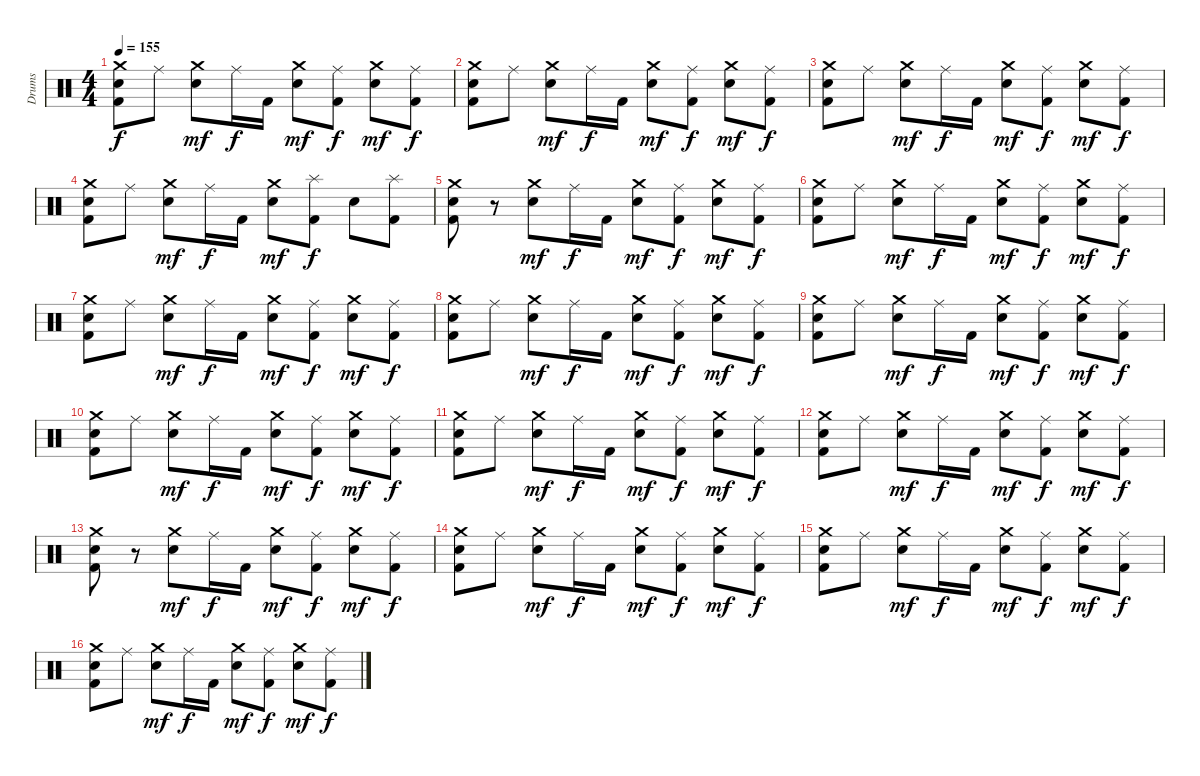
\track ("Drums" "Drums") {instrument percussion}
\staff {score}
\articulation defaults
\ts (4 4)
\tempo 155
\clef neutral
\ks c
("Crash medium (hit)" "Snare (hit) 2" "Kick (hit) 2").8{dy f} "Ride (middle)".8 ("Crash medium (hit)" "Snare (hit) 2").8{dy mf} "Ride (middle)".16{dy f} "Kick (hit) 2".16 ("Crash medium (hit)" "Snare (hit) 2").8{dy mf} ("Ride (middle)" "Kick (hit) 2").8{dy f} ("Crash medium (hit)" "Snare (hit) 2").8{dy mf} ("Ride (middle)" "Kick (hit) 2").8{dy f} |
("Crash medium (hit)" "Snare (hit) 2" "Kick (hit) 2").8 "Ride (middle)".8 ("Crash medium (hit)" "Snare (hit) 2").8{dy mf} "Ride (middle)".16{dy f} "Kick (hit) 2".16 ("Crash medium (hit)" "Snare (hit) 2").8{dy mf} ("Ride (middle)" "Kick (hit) 2").8{dy f} ("Crash medium (hit)" "Snare (hit) 2").8{dy mf} ("Ride (middle)" "Kick (hit) 2").8{dy f} |
("Crash medium (hit)" "Snare (hit) 2" "Kick (hit) 2").8 "Ride (middle)".8 ("Crash medium (hit)" "Snare (hit) 2").8{dy mf} "Ride (middle)".16{dy f} "Kick (hit) 2".16 ("Crash medium (hit)" "Snare (hit) 2").8{dy mf} ("Ride (middle)" "Kick (hit) 2").8{dy f} ("Crash medium (hit)" "Snare (hit) 2").8{dy mf} ("Ride (middle)" "Kick (hit) 2").8{dy f} |
("Crash medium (hit)" "Snare (hit) 2" "Kick (hit) 2").8 "Ride (middle)".8 ("Crash medium (hit)" "Snare (hit) 2").8{dy mf} "Ride (middle)".16{dy f} "Kick (hit) 2".16 ("Crash medium (hit)" "Snare (hit) 2").8{dy mf} ("Splash (hit)" "Kick (hit) 2").8{dy f} "Snare (hit) 2".8 ("Splash (hit)" "Kick (hit) 2").8 |
("Crash medium (hit)" "Snare (hit) 2" "Kick (hit) 2").8 r.8 ("Crash medium (hit)" "Snare (hit) 2").8{dy mf} "Ride (middle)".16{dy f} "Kick (hit) 2".16 ("Crash medium (hit)" "Snare (hit) 2").8{dy mf} ("Ride (middle)" "Kick (hit) 2").8{dy f} ("Crash medium (hit)" "Snare (hit) 2").8{dy mf} ("Ride (middle)" "Kick (hit) 2").8{dy f} |
("Crash medium (hit)" "Snare (hit) 2" "Kick (hit) 2").8 "Ride (middle)".8 ("Crash medium (hit)" "Snare (hit) 2").8{dy mf} "Ride (middle)".16{dy f} "Kick (hit) 2".16 ("Crash medium (hit)" "Snare (hit) 2").8{dy mf} ("Ride (middle)" "Kick (hit) 2").8{dy f} ("Crash medium (hit)" "Snare (hit) 2").8{dy mf} ("Ride (middle)" "Kick (hit) 2").8{dy f} |
("Crash medium (hit)" "Snare (hit) 2" "Kick (hit) 2").8 "Ride (middle)".8 ("Crash medium (hit)" "Snare (hit) 2").8{dy mf} "Ride (middle)".16{dy f} "Kick (hit) 2".16 ("Crash medium (hit)" "Snare (hit) 2").8{dy mf} ("Ride (middle)" "Kick (hit) 2").8{dy f} ("Crash medium (hit)" "Snare (hit) 2").8{dy mf} ("Ride (middle)" "Kick (hit) 2").8{dy f} |
("Crash medium (hit)" "Snare (hit) 2" "Kick (hit) 2").8 "Ride (middle)".8 ("Crash medium (hit)" "Snare (hit) 2").8{dy mf} "Ride (middle)".16{dy f} "Kick (hit) 2".16 ("Crash medium (hit)" "Snare (hit) 2").8{dy mf} ("Ride (middle)" "Kick (hit) 2").8{dy f} ("Crash medium (hit)" "Snare (hit) 2").8{dy mf} ("Ride (middle)" "Kick (hit) 2").8{dy f} |
("Crash medium (hit)" "Snare (hit) 2" "Kick (hit) 2").8 "Ride (middle)".8 ("Crash medium (hit)" "Snare (hit) 2").8{dy mf} "Ride (middle)".16{dy f} "Kick (hit) 2".16 ("Crash medium (hit)" "Snare (hit) 2").8{dy mf} ("Ride (middle)" "Kick (hit) 2").8{dy f} ("Crash medium (hit)" "Snare (hit) 2").8{dy mf} ("Ride (middle)" "Kick (hit) 2").8{dy f} |
("Crash medium (hit)" "Snare (hit) 2" "Kick (hit) 2").8 "Ride (middle)".8 ("Crash medium (hit)" "Snare (hit) 2").8{dy mf} "Ride (middle)".16{dy f} "Kick (hit) 2".16 ("Crash medium (hit)" "Snare (hit) 2").8{dy mf} ("Ride (middle)" "Kick (hit) 2").8{dy f} ("Crash medium (hit)" "Snare (hit) 2").8{dy mf} ("Ride (middle)" "Kick (hit) 2").8{dy f} |
("Crash medium (hit)" "Snare (hit) 2" "Kick (hit) 2").8 "Ride (middle)".8 ("Crash medium (hit)" "Snare (hit) 2").8{dy mf} "Ride (middle)".16{dy f} "Kick (hit) 2".16 ("Crash medium (hit)" "Snare (hit) 2").8{dy mf} ("Ride (middle)" "Kick (hit) 2").8{dy f} ("Crash medium (hit)" "Snare (hit) 2").8{dy mf} ("Ride (middle)" "Kick (hit) 2").8{dy f} |
("Crash medium (hit)" "Snare (hit) 2" "Kick (hit) 2").8 "Ride (middle)".8 ("Crash medium (hit)" "Snare (hit) 2").8{dy mf} "Ride (middle)".16{dy f} "Kick (hit) 2".16 ("Crash medium (hit)" "Snare (hit) 2").8{dy mf} ("Ride (middle)" "Kick (hit) 2").8{dy f} ("Crash medium (hit)" "Snare (hit) 2").8{dy mf} ("Ride (middle)" "Kick (hit) 2").8{dy f} |
("Crash medium (hit)" "Snare (hit) 2" "Kick (hit) 2").8 r.8 ("Crash medium (hit)" "Snare (hit) 2").8{dy mf} "Ride (middle)".16{dy f} "Kick (hit) 2".16 ("Crash medium (hit)" "Snare (hit) 2").8{dy mf} ("Ride (middle)" "Kick (hit) 2").8{dy f} ("Crash medium (hit)" "Snare (hit) 2").8{dy mf} ("Ride (middle)" "Kick (hit) 2").8{dy f} |
("Crash medium (hit)" "Snare (hit) 2" "Kick (hit) 2").8 "Ride (middle)".8 ("Crash medium (hit)" "Snare (hit) 2").8{dy mf} "Ride (middle)".16{dy f} "Kick (hit) 2".16 ("Crash medium (hit)" "Snare (hit) 2").8{dy mf} ("Ride (middle)" "Kick (hit) 2").8{dy f} ("Crash medium (hit)" "Snare (hit) 2").8{dy mf} ("Ride (middle)" "Kick (hit) 2").8{dy f} |
("Crash medium (hit)" "Snare (hit) 2" "Kick (hit) 2").8 "Ride (middle)".8 ("Crash medium (hit)" "Snare (hit) 2").8{dy mf} "Ride (middle)".16{dy f} "Kick (hit) 2".16 ("Crash medium (hit)" "Snare (hit) 2").8{dy mf} ("Ride (middle)" "Kick (hit) 2").8{dy f} ("Crash medium (hit)" "Snare (hit) 2").8{dy mf} ("Ride (middle)" "Kick (hit) 2").8{dy f} |
("Crash medium (hit)" "Snare (hit) 2" "Kick (hit) 2").8 "Ride (middle)".8 ("Crash medium (hit)" "Snare (hit) 2").8{dy mf} "Ride (middle)".16{dy f} "Kick (hit) 2".16 ("Crash medium (hit)" "Snare (hit) 2").8{dy mf} ("Ride (middle)" "Kick (hit) 2").8{dy f} ("Crash medium (hit)" "Snare (hit) 2").8{dy mf} ("Ride (middle)" "Kick (hit) 2").8{dy f}
